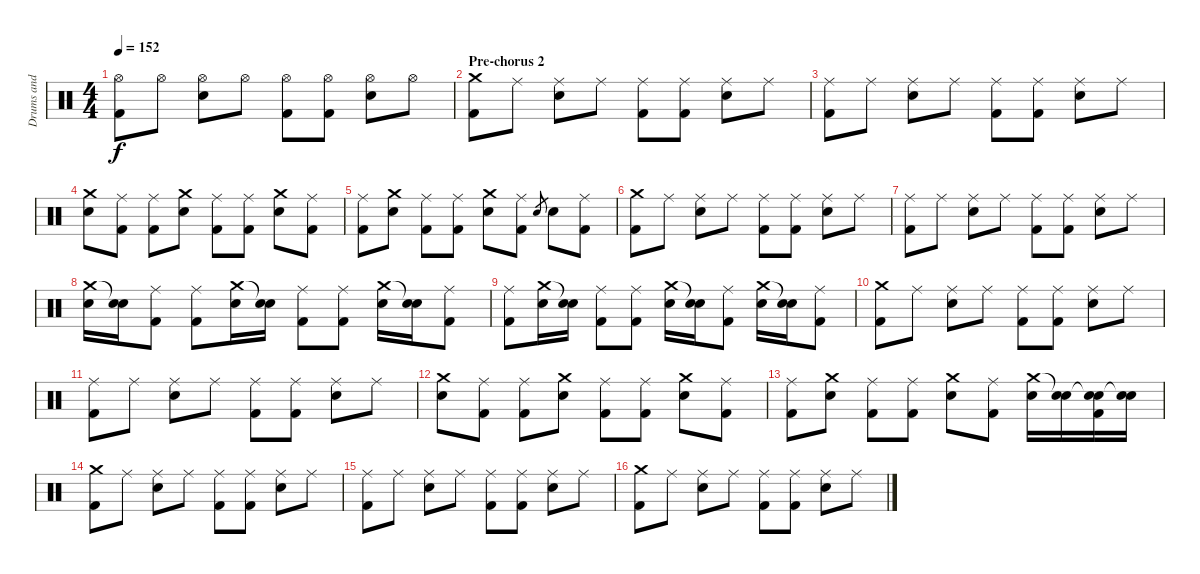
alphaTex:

\track ("Drums and Percussion" "Drums and ") {instrument percussion}
\staff {score}
\articulation defaults
\ts (4 4)
\tempo 152
\clef neutral
\ks c
("Hi-Hat (open)" "Kick (hit) 2").8{dy f} "Hi-Hat (open)".8 ("Hi-Hat (open)" "Electric Snare (hit)").8 "Hi-Hat (open)".8 ("Hi-Hat (open)" "Kick (hit) 2").8 ("Hi-Hat (open)" "Kick (hit) 2").8 ("Hi-Hat (open)" "Electric Snare (hit)").8 "Hi-Hat (open)".8 |
\section ("" "Pre-chorus 2")
("Crash medium (hit)" "Kick (hit) 2").8 "Ride (middle)".8 ("Ride (middle)" "Electric Snare (hit)").8 "Ride (middle)".8 ("Ride (middle)" "Kick (hit) 2").8 ("Ride (middle)" "Kick (hit) 2").8 ("Ride (middle)" "Electric Snare (hit)").8 "Ride (middle)".8 |
("Ride (middle)" "Kick (hit) 2").8 "Ride (middle)".8 ("Ride (middle)" "Electric Snare (hit)").8 "Ride (middle)".8 ("Ride (middle)" "Kick (hit) 2").8 ("Ride (middle)" "Kick (hit) 2").8 ("Ride (middle)" "Electric Snare (hit)").8 "Ride (middle)".8 |
("Crash medium (hit)" "Electric Snare (hit)").8 ("Ride (middle)" "Kick (hit) 2").8 ("Ride (middle)" "Kick (hit) 2").8 ("Crash medium (hit)" "Electric Snare (hit)").8 ("Ride (middle)" "Kick (hit) 2").8 ("Ride (middle)" "Kick (hit) 2").8 ("Crash medium (hit)" "Electric Snare (hit)").8 ("Ride (middle)" "Kick (hit) 2").8 |
("Ride (middle)" "Kick (hit) 2").8 ("Crash medium (hit)" "Electric Snare (hit)").8 ("Ride (middle)" "Kick (hit) 2").8 ("Ride (middle)" "Kick (hit) 2").8 ("Crash medium (hit)" "Electric Snare (hit)").8 ("Ride (middle)" "Kick (hit) 2").8 "Electric Snare (hit)".8{gr} "Electric Snare (hit)".8 ("Ride (middle)" "Kick (hit) 2").8 |
("Crash medium (hit)" "Kick (hit) 2").8 "Ride (middle)".8 ("Ride (middle)" "Electric Snare (hit)").8 "Ride (middle)".8 ("Ride (middle)" "Kick (hit) 2").8 ("Ride (middle)" "Kick (hit) 2").8 ("Ride (middle)" "Electric Snare (hit)").8 "Ride (middle)".8 |
("Ride (middle)" "Kick (hit) 2").8 "Ride (middle)".8 ("Ride (middle)" "Electric Snare (hit)").8 "Ride (middle)".8 ("Ride (middle)" "Kick (hit) 2").8 ("Ride (middle)" "Kick (hit) 2").8 ("Ride (middle)" "Electric Snare (hit)").8 "Ride (middle)".8 |
("Crash medium (hit)" "Electric Snare (hit)").16 ("Snare (hit)"{t} "Electric Snare (hit)").16 ("Ride (middle)" "Kick (hit) 2").8 ("Ride (middle)" "Kick (hit) 2").8 ("Crash medium (hit)" "Electric Snare (hit)").16 ("Snare (hit)"{t} "Electric Snare (hit)").16 ("Ride (middle)" "Kick (hit) 2").8 ("Ride (middle)" "Kick (hit) 2").8 ("Crash medium (hit)" "Electric Snare (hit)").16 ("Snare (hit)"{t} "Electric Snare (hit)").16 ("Ride (middle)" "Kick (hit) 2").8 |
("Ride (middle)" "Kick (hit) 2").8 ("Crash medium (hit)" "Electric Snare (hit)").16 ("Snare (hit)"{t} "Electric Snare (hit)").16 ("Ride (middle)" "Kick (hit) 2").8 ("Ride (middle)" "Kick (hit) 2").8 ("Crash medium (hit)" "Electric Snare (hit)").16 ("Snare (hit)"{t} "Electric Snare (hit)").16 ("Ride (middle)" "Kick (hit) 2").8 ("Crash medium (hit)" "Electric Snare (hit)").16 ("Snare (hit)"{t} "Electric Snare (hit)").16 ("Ride (middle)" "Kick (hit) 2").8 |
("Crash medium (hit)" "Kick (hit) 2").8 "Ride (middle)".8 ("Ride (middle)" "Electric Snare (hit)").8 "Ride (middle)".8 ("Ride (middle)" "Kick (hit) 2").8 ("Ride (middle)" "Kick (hit) 2").8 ("Ride (middle)" "Electric Snare (hit)").8 "Ride (middle)".8 |
("Ride (middle)" "Kick (hit) 2").8 "Ride (middle)".8 ("Ride (middle)" "Electric Snare (hit)").8 "Ride (middle)".8 ("Ride (middle)" "Kick (hit) 2").8 ("Ride (middle)" "Kick (hit) 2").8 ("Ride (middle)" "Electric Snare (hit)").8 "Ride (middle)".8 |
("Crash medium (hit)" "Electric Snare (hit)").8 ("Ride (middle)" "Kick (hit) 2").8 ("Ride (middle)" "Kick (hit) 2").8 ("Crash medium (hit)" "Electric Snare (hit)").8 ("Ride (middle)" "Kick (hit) 2").8 ("Ride (middle)" "Kick (hit) 2").8 ("Crash medium (hit)" "Electric Snare (hit)").8 ("Ride (middle)" "Kick (hit) 2").8 |
("Ride (middle)" "Kick (hit) 2").8 ("Crash medium (hit)" "Electric Snare (hit)").8 ("Ride (middle)" "Kick (hit) 2").8 ("Ride (middle)" "Kick (hit) 2").8 ("Crash medium (hit)" "Electric Snare (hit)").8 ("Ride (middle)" "Kick (hit) 2").8 ("Crash medium (hit)" "Electric Snare (hit)").16 ("Snare (hit)"{t} "Electric Snare (hit)").16 ("Snare (hit)"{t} "Electric Snare (hit)" "Kick (hit) 2").16 ("Snare (hit)"{t} "Electric Snare (hit)").16 |
("Crash medium (hit)" "Kick (hit) 2").8 "Ride (middle)".8 ("Ride (middle)" "Electric Snare (hit)").8 "Ride (middle)".8 ("Ride (middle)" "Kick (hit) 2").8 ("Ride (middle)" "Kick (hit) 2").8 ("Ride (middle)" "Electric Snare (hit)").8 "Ride (middle)".8 |
("Ride (middle)" "Kick (hit) 2").8 "Ride (middle)".8 ("Ride (middle)" "Electric Snare (hit)").8 "Ride (middle)".8 ("Ride (middle)" "Kick (hit) 2").8 ("Ride (middle)" "Kick (hit) 2").8 ("Ride (middle)" "Electric Snare (hit)").8 "Ride (middle)".8 |
("Crash medium (hit)" "Kick (hit) 2").8 "Ride (middle)".8 ("Ride (middle)" "Electric Snare (hit)").8 "Ride (middle)".8 ("Ride (middle)" "Kick (hit) 2").8 ("Ride (middle)" "Kick (hit) 2").8 ("Ride (middle)" "Electric Snare (hit)").8 "Ride (middle)".8
